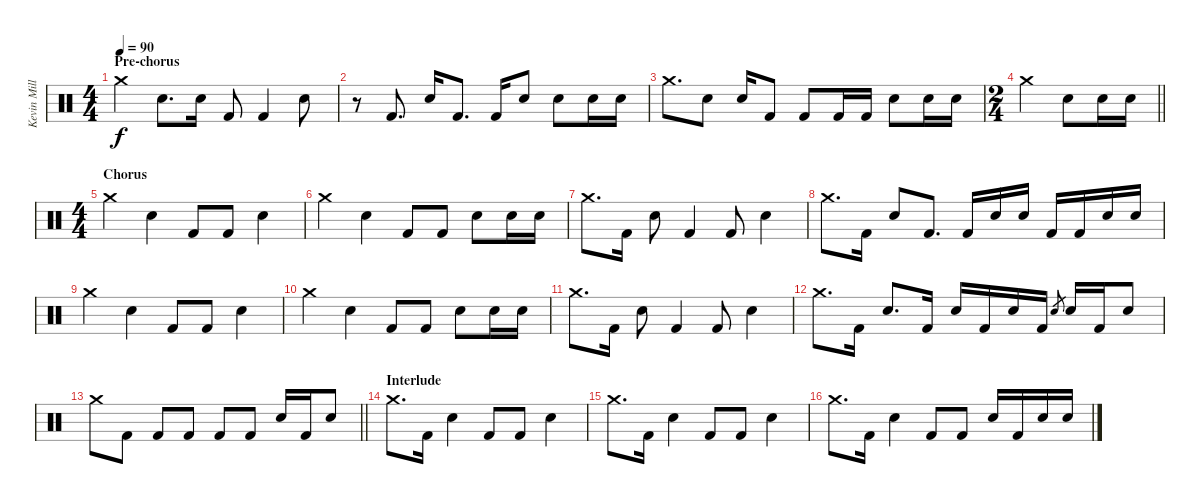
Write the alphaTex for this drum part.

\track ("Kevin Miller (Drums)" "Kevin Mill") {instrument percussion}
\staff {score}
\articulation defaults
\ts (4 4)
\section ("" "Pre-chorus")
\tempo 90
\clef neutral
\ks c "Crash medium (hit)".4{dy f} "Electric Snare (hit)".8{d} "Electric Snare (hit)".16 "Kick (hit) 2".8 "Kick (hit) 2".4 "Electric Snare (hit)".8
|
r.8 "Kick (hit) 2".8{d} "Electric Snare (hit)".16 "Kick (hit) 2".8{d} "Kick (hit) 2".16 "Electric Snare (hit)".8 "Electric Snare (hit)".8 "Electric Snare (hit)".16 "Electric Snare (hit)".16 |
"Crash medium (hit)".8{d} "Electric Snare (hit)".8 "Electric Snare (hit)".16 "Kick (hit) 2".8 "Kick (hit) 2".8 "Kick (hit) 2".16 "Kick (hit) 2".16 "Electric Snare (hit)".8 "Electric Snare (hit)".16 "Electric Snare (hit)".16 |
\ts (2 4)
\barLineRight lightlight "Crash medium (hit)".4 "Electric Snare (hit)".8 "Electric Snare (hit)".16 "Electric Snare (hit)".16
|
\ts (4 4)
\section ("" "Chorus")
"Crash medium (hit)".4 "Electric Snare (hit)".4 "Kick (hit) 2".8 "Kick (hit) 2".8 "Electric Snare (hit)".4 |
"Crash medium (hit)".4 "Electric Snare (hit)".4 "Kick (hit) 2".8 "Kick (hit) 2".8 "Electric Snare (hit)".8 "Electric Snare (hit)".16 "Electric Snare (hit)".16 |
"Crash medium (hit)".8{d} "Kick (hit) 2".16 "Electric Snare (hit)".8 "Kick (hit) 2".4 "Kick (hit) 2".8 "Electric Snare (hit)".4 |
"Crash medium (hit)".8{d} "Kick (hit) 2".16 "Electric Snare (hit)".8 "Kick (hit) 2".8{d} "Kick (hit) 2".16 "Electric Snare (hit)".16 "Electric Snare (hit)".16 "Kick (hit) 2".16 "Kick (hit) 2".16 "Electric Snare (hit)".16 "Electric Snare (hit)".16 |
"Crash medium (hit)".4 "Electric Snare (hit)".4 "Kick (hit) 2".8 "Kick (hit) 2".8 "Electric Snare (hit)".4 |
"Crash medium (hit)".4 "Electric Snare (hit)".4 "Kick (hit) 2".8 "Kick (hit) 2".8 "Electric Snare (hit)".8 "Electric Snare (hit)".16 "Electric Snare (hit)".16 |
"Crash medium (hit)".8{d} "Kick (hit) 2".16 "Electric Snare (hit)".8 "Kick (hit) 2".4 "Kick (hit) 2".8 "Electric Snare (hit)".4 |
"Crash medium (hit)".8{d} "Kick (hit) 2".16 "Electric Snare (hit)".8{d} "Kick (hit) 2".16 "Electric Snare (hit)".16 "Kick (hit) 2".16 "Electric Snare (hit)".16 "Kick (hit) 2".16 "Electric Snare (hit)".8{gr} "Electric Snare (hit)".16 "Kick (hit) 2".16 "Electric Snare (hit)".8 |
\barLineRight lightlight "Crash medium (hit)".8 "Kick (hit) 2".8 "Kick (hit) 2".8 "Kick (hit) 2".8 "Kick (hit) 2".8 "Kick (hit) 2".8 "Electric Snare (hit)".16 "Kick (hit) 2".16 "Electric Snare (hit)".8
|
\section ("" "Interlude")
"Crash medium (hit)".8{d} "Kick (hit) 2".16 "Electric Snare (hit)".4 "Kick (hit) 2".8 "Kick (hit) 2".8 "Electric Snare (hit)".4 |
"Crash medium (hit)".8{d} "Kick (hit) 2".16 "Electric Snare (hit)".4 "Kick (hit) 2".8 "Kick (hit) 2".8 "Electric Snare (hit)".4 |
"Crash medium (hit)".8{d} "Kick (hit) 2".16 "Electric Snare (hit)".4 "Kick (hit) 2".8 "Kick (hit) 2".8 "Electric Snare (hit)".16 "Kick (hit) 2".16 "Electric Snare (hit)".16 "Electric Snare (hit)".16
